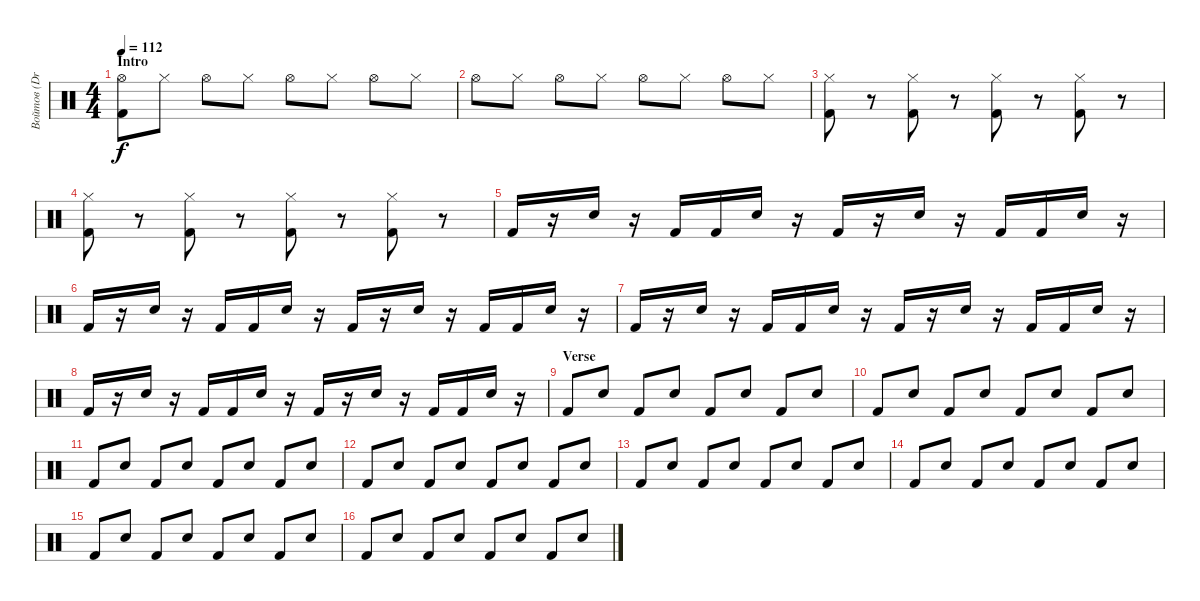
\track ("Войтов (Drums)" "Войтов (Dr") {instrument percussion}
\staff {score}
\articulation defaults
\ts (4 4)
\section ("" "Intro")
\tempo 112
\clef neutral
\ks c
("Kick (hit) 2" "Hi-Hat (open)").8{dy f} "Hi-Hat (closed)".8 "Hi-Hat (open)".8 "Hi-Hat (closed)".8 "Hi-Hat (open)".8 "Hi-Hat (closed)".8 "Hi-Hat (open)".8 "Hi-Hat (closed)".8 |
"Hi-Hat (open)".8 "Hi-Hat (closed)".8 "Hi-Hat (open)".8 "Hi-Hat (closed)".8 "Hi-Hat (open)".8 "Hi-Hat (closed)".8 "Hi-Hat (open)".8 "Hi-Hat (closed)".8 |
("Hi-Hat (closed)" "Kick (hit) 2").8 r.8 ("Hi-Hat (closed)" "Kick (hit) 2").8 r.8 ("Hi-Hat (closed)" "Kick (hit) 2").8 r.8 ("Hi-Hat (closed)" "Kick (hit) 2").8 r.8 |
("Hi-Hat (closed)" "Kick (hit) 2").8 r.8 ("Hi-Hat (closed)" "Kick (hit) 2").8 r.8 ("Hi-Hat (closed)" "Kick (hit) 2").8 r.8 ("Hi-Hat (closed)" "Kick (hit) 2").8 r.8 |
"Kick (hit) 2".16 r.16 "Electric Snare (hit)".16 r.16 "Kick (hit) 2".16 "Kick (hit) 2".16 "Electric Snare (hit)".16 r.16 "Kick (hit) 2".16 r.16 "Electric Snare (hit)".16 r.16 "Kick (hit) 2".16 "Kick (hit) 2".16 "Electric Snare (hit)".16 r.16 |
"Kick (hit) 2".16 r.16 "Electric Snare (hit)".16 r.16 "Kick (hit) 2".16 "Kick (hit) 2".16 "Electric Snare (hit)".16 r.16 "Kick (hit) 2".16 r.16 "Electric Snare (hit)".16 r.16 "Kick (hit) 2".16 "Kick (hit) 2".16 "Electric Snare (hit)".16 r.16 |
"Kick (hit) 2".16 r.16 "Electric Snare (hit)".16 r.16 "Kick (hit) 2".16 "Kick (hit) 2".16 "Electric Snare (hit)".16 r.16 "Kick (hit) 2".16 r.16 "Electric Snare (hit)".16 r.16 "Kick (hit) 2".16 "Kick (hit) 2".16 "Electric Snare (hit)".16 r.16 |
"Kick (hit) 2".16 r.16 "Electric Snare (hit)".16 r.16 "Kick (hit) 2".16 "Kick (hit) 2".16 "Electric Snare (hit)".16 r.16 "Kick (hit) 2".16 r.16 "Electric Snare (hit)".16 r.16 "Kick (hit) 2".16 "Kick (hit) 2".16 "Electric Snare (hit)".16 r.16 |
\section ("" "Verse")
"Kick (hit) 2".8 "Electric Snare (hit)".8 "Kick (hit) 2".8 "Electric Snare (hit)".8 "Kick (hit) 2".8 "Electric Snare (hit)".8 "Kick (hit) 2".8 "Electric Snare (hit)".8 |
"Kick (hit) 2".8 "Electric Snare (hit)".8 "Kick (hit) 2".8 "Electric Snare (hit)".8 "Kick (hit) 2".8 "Electric Snare (hit)".8 "Kick (hit) 2".8 "Electric Snare (hit)".8 |
"Kick (hit) 2".8 "Electric Snare (hit)".8 "Kick (hit) 2".8 "Electric Snare (hit)".8 "Kick (hit) 2".8 "Electric Snare (hit)".8 "Kick (hit) 2".8 "Electric Snare (hit)".8 |
"Kick (hit) 2".8 "Electric Snare (hit)".8 "Kick (hit) 2".8 "Electric Snare (hit)".8 "Kick (hit) 2".8 "Electric Snare (hit)".8 "Kick (hit) 2".8 "Electric Snare (hit)".8 |
"Kick (hit) 2".8 "Electric Snare (hit)".8 "Kick (hit) 2".8 "Electric Snare (hit)".8 "Kick (hit) 2".8 "Electric Snare (hit)".8 "Kick (hit) 2".8 "Electric Snare (hit)".8 |
"Kick (hit) 2".8 "Electric Snare (hit)".8 "Kick (hit) 2".8 "Electric Snare (hit)".8 "Kick (hit) 2".8 "Electric Snare (hit)".8 "Kick (hit) 2".8 "Electric Snare (hit)".8 |
"Kick (hit) 2".8 "Electric Snare (hit)".8 "Kick (hit) 2".8 "Electric Snare (hit)".8 "Kick (hit) 2".8 "Electric Snare (hit)".8 "Kick (hit) 2".8 "Electric Snare (hit)".8 |
"Kick (hit) 2".8 "Electric Snare (hit)".8 "Kick (hit) 2".8 "Electric Snare (hit)".8 "Kick (hit) 2".8 "Electric Snare (hit)".8 "Kick (hit) 2".8 "Electric Snare (hit)".8
